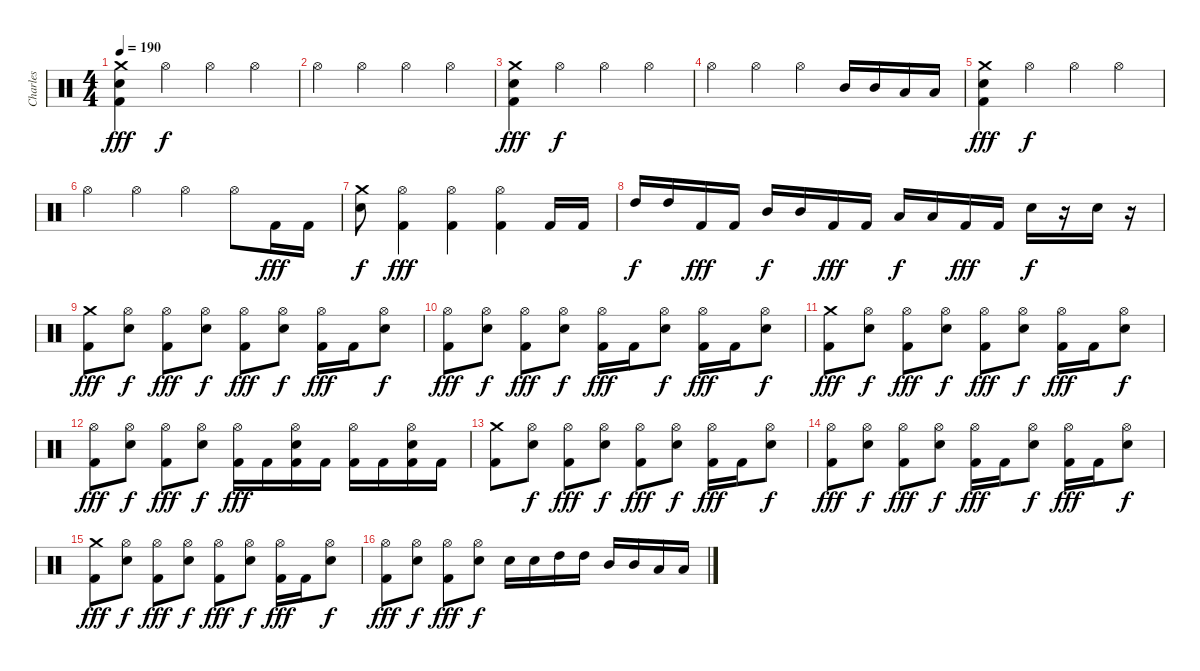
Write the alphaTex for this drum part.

\track ("Charles" "Charles") {instrument percussion}
\staff {score}
\articulation defaults
\ts (4 4)
\tempo 190
\clef neutral
\ks c
("Crash medium (hit)" "Electric Snare (hit)" "Kick (hit) 2").4{dy fff} "Hi-Hat (open)".4{dy f} "Hi-Hat (open)".4 "Hi-Hat (open)".4 |
"Hi-Hat (open)".4 "Hi-Hat (open)".4 "Hi-Hat (open)".4 "Hi-Hat (open)".4 |
("Crash medium (hit)" "Electric Snare (hit)" "Kick (hit) 2").4{dy fff} "Hi-Hat (open)".4{dy f} "Hi-Hat (open)".4 "Hi-Hat (open)".4 |
"Hi-Hat (open)".4 "Hi-Hat (open)".4 "Hi-Hat (open)".4 "Mid Tom (hit)".16 "Mid Tom (hit)".16 "Low Tom (hit)".16 "Low Tom (hit)".16 |
("Crash medium (hit)" "Electric Snare (hit)" "Kick (hit) 2").4{dy fff} "Hi-Hat (open)".4{dy f} "Hi-Hat (open)".4 "Hi-Hat (open)".4 |
"Hi-Hat (open)".4 "Hi-Hat (open)".4 "Hi-Hat (open)".4 "Hi-Hat (open)".8 "Kick (hit) 2".16{dy fff} "Kick (hit) 2".16 |
("Crash medium (hit)" "Electric Snare (hit)").8{dy f} ("Hi-Hat (open)" "Kick (hit) 2").4{dy fff} ("Hi-Hat (open)" "Kick (hit) 2").4 ("Hi-Hat (open)" "Kick (hit) 2").4 "Kick (hit) 2".16 "Kick (hit) 2".16 |
"High Tom (hit)".16{dy f} "High Tom (hit)".16 "Kick (hit) 2".16{dy fff} "Kick (hit) 2".16 "Mid Tom (hit)".16{dy f} "Mid Tom (hit)".16 "Kick (hit) 2".16{dy fff} "Kick (hit) 2".16 "Low Tom (hit)".16{dy f} "Low Tom (hit)".16 "Kick (hit) 2".16{dy fff} "Kick (hit) 2".16 "Electric Snare (hit)".16{dy f} r.16 "Electric Snare (hit)".16 r.16 |
("Crash medium (hit)" "Kick (hit) 2").8{dy fff} ("Hi-Hat (open)" "Electric Snare (hit)").8{dy f} ("Hi-Hat (open)" "Kick (hit) 2").8{dy fff} ("Hi-Hat (open)" "Electric Snare (hit)").8{dy f} ("Hi-Hat (open)" "Kick (hit) 2").8{dy fff} ("Hi-Hat (open)" "Electric Snare (hit)").8{dy f} ("Hi-Hat (open)" "Kick (hit) 2").16{dy fff} "Kick (hit) 2".16 ("Hi-Hat (open)" "Electric Snare (hit)").8{dy f} |
("Hi-Hat (open)" "Kick (hit) 2").8{dy fff} ("Hi-Hat (open)" "Electric Snare (hit)").8{dy f} ("Hi-Hat (open)" "Kick (hit) 2").8{dy fff} ("Hi-Hat (open)" "Electric Snare (hit)").8{dy f} ("Hi-Hat (open)" "Kick (hit) 2").16{dy fff} "Kick (hit) 2".16 ("Hi-Hat (open)" "Electric Snare (hit)").8{dy f} ("Hi-Hat (open)" "Kick (hit) 2").16{dy fff} "Kick (hit) 2".16 ("Hi-Hat (open)" "Electric Snare (hit)").8{dy f} |
("Crash medium (hit)" "Kick (hit) 2").8{dy fff} ("Hi-Hat (open)" "Electric Snare (hit)").8{dy f} ("Hi-Hat (open)" "Kick (hit) 2").8{dy fff} ("Hi-Hat (open)" "Electric Snare (hit)").8{dy f} ("Hi-Hat (open)" "Kick (hit) 2").8{dy fff} ("Hi-Hat (open)" "Electric Snare (hit)").8{dy f} ("Hi-Hat (open)" "Kick (hit) 2").16{dy fff} "Kick (hit) 2".16 ("Hi-Hat (open)" "Electric Snare (hit)").8{dy f} |
("Hi-Hat (open)" "Kick (hit) 2").8{dy fff} ("Hi-Hat (open)" "Electric Snare (hit)").8{dy f} ("Hi-Hat (open)" "Kick (hit) 2").8{dy fff} ("Hi-Hat (open)" "Electric Snare (hit)").8{dy f} ("Hi-Hat (open)" "Kick (hit) 2").16{dy fff} "Kick (hit) 2".16 ("Hi-Hat (open)" "Electric Snare (hit)" "Kick (hit) 2").16 "Kick (hit) 2".16 ("Hi-Hat (open)" "Kick (hit) 2").16 "Kick (hit) 2".16 ("Hi-Hat (open)" "Electric Snare (hit)" "Kick (hit) 2").16 "Kick (hit) 2".16 |
("Crash medium (hit)" "Kick (hit) 2").8 ("Hi-Hat (open)" "Electric Snare (hit)").8{dy f} ("Hi-Hat (open)" "Kick (hit) 2").8{dy fff} ("Hi-Hat (open)" "Electric Snare (hit)").8{dy f} ("Hi-Hat (open)" "Kick (hit) 2").8{dy fff} ("Hi-Hat (open)" "Electric Snare (hit)").8{dy f} ("Hi-Hat (open)" "Kick (hit) 2").16{dy fff} "Kick (hit) 2".16 ("Hi-Hat (open)" "Electric Snare (hit)").8{dy f} |
("Hi-Hat (open)" "Kick (hit) 2").8{dy fff} ("Hi-Hat (open)" "Electric Snare (hit)").8{dy f} ("Hi-Hat (open)" "Kick (hit) 2").8{dy fff} ("Hi-Hat (open)" "Electric Snare (hit)").8{dy f} ("Hi-Hat (open)" "Kick (hit) 2").16{dy fff} "Kick (hit) 2".16 ("Hi-Hat (open)" "Electric Snare (hit)").8{dy f} ("Hi-Hat (open)" "Kick (hit) 2").16{dy fff} "Kick (hit) 2".16 ("Hi-Hat (open)" "Electric Snare (hit)").8{dy f} |
("Crash medium (hit)" "Kick (hit) 2").8{dy fff} ("Hi-Hat (open)" "Electric Snare (hit)").8{dy f} ("Hi-Hat (open)" "Kick (hit) 2").8{dy fff} ("Hi-Hat (open)" "Electric Snare (hit)").8{dy f} ("Hi-Hat (open)" "Kick (hit) 2").8{dy fff} ("Hi-Hat (open)" "Electric Snare (hit)").8{dy f} ("Hi-Hat (open)" "Kick (hit) 2").16{dy fff} "Kick (hit) 2".16 ("Hi-Hat (open)" "Electric Snare (hit)").8{dy f} |
("Hi-Hat (open)" "Kick (hit) 2").8{dy fff} ("Hi-Hat (open)" "Electric Snare (hit)").8{dy f} ("Hi-Hat (open)" "Kick (hit) 2").8{dy fff} ("Hi-Hat (open)" "Electric Snare (hit)").8{dy f} "Electric Snare (hit)".16 "Electric Snare (hit)".16 "High Tom (hit)".16 "High Tom (hit)".16 "Mid Tom (hit)".16 "Mid Tom (hit)".16 "Low Tom (hit)".16 "Low Tom (hit)".16
